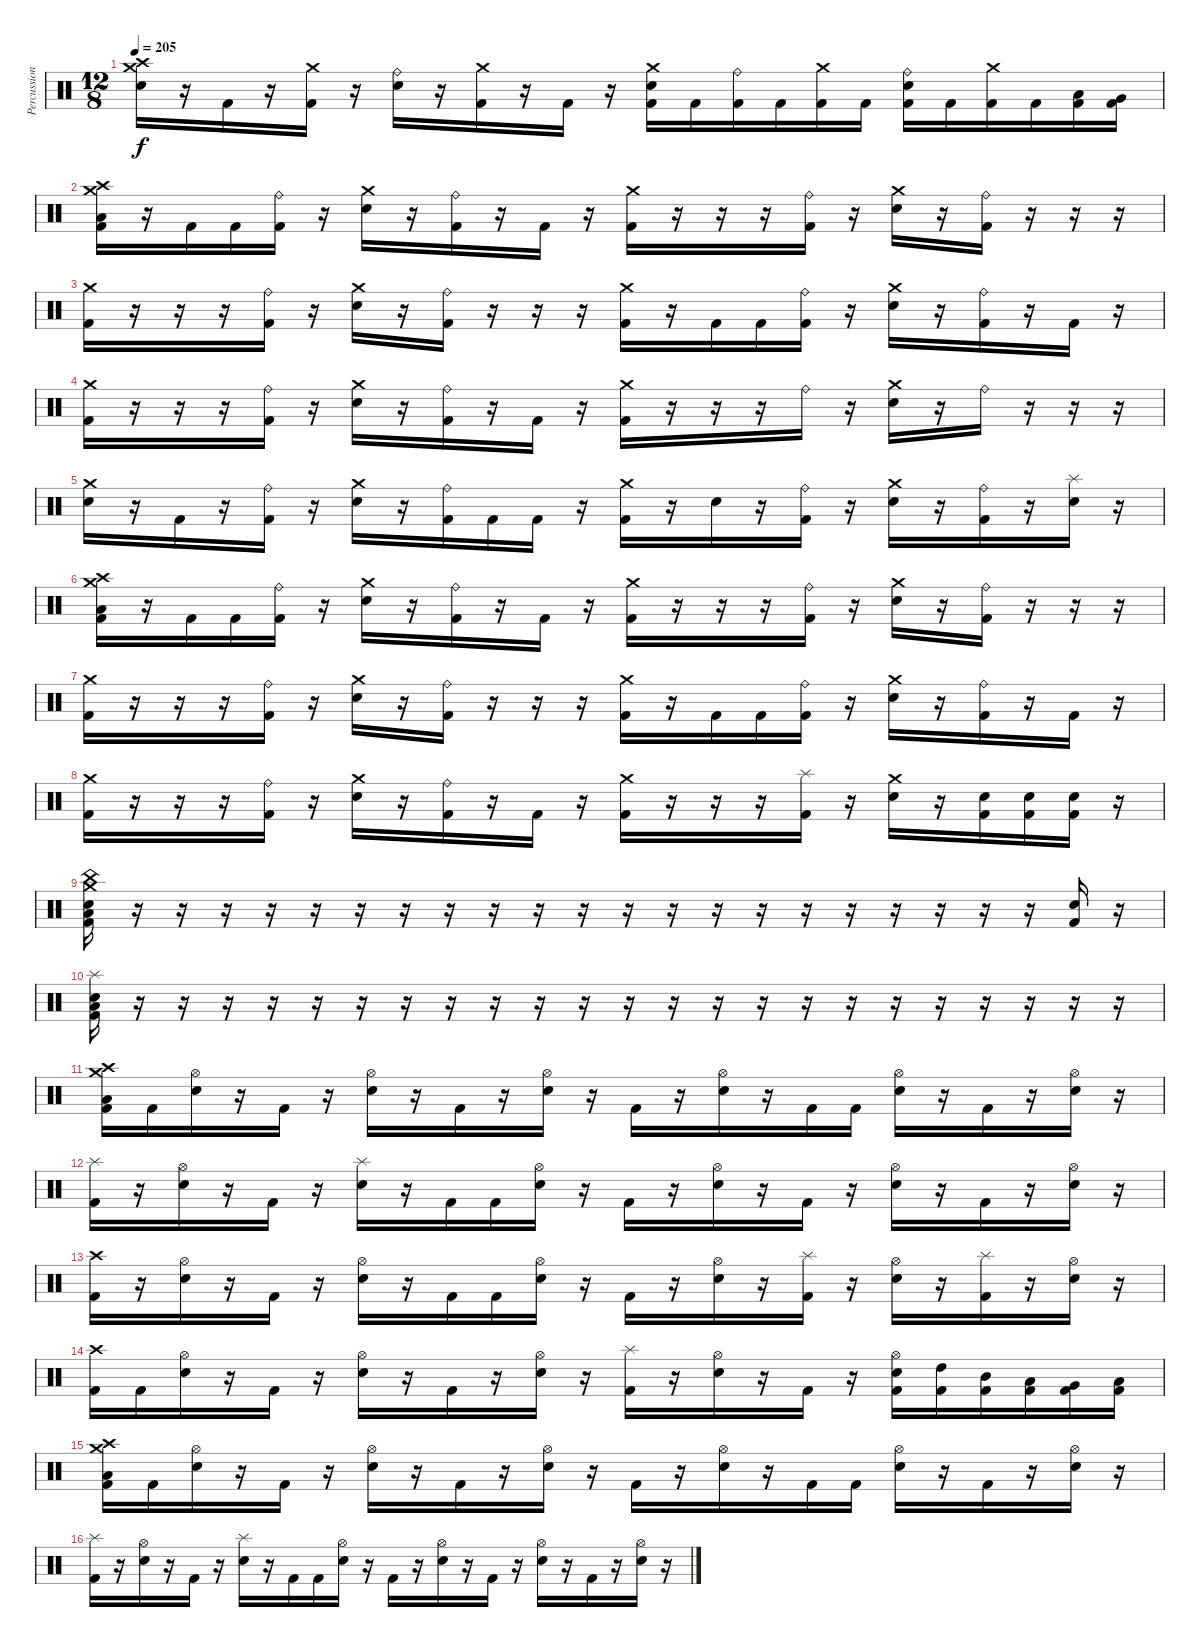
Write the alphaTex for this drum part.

\track ("Percussion" "Percussion") {instrument percussion}
\staff {score}
\articulation defaults
\ts (12 8)
\tempo 205
\clef neutral
\ks c
("Crash high (hit)" "Crash medium (hit)" "Electric Snare (hit)").16{dy f} r.16 "Kick (hit) 2".16 r.16 ("Crash medium (hit)" "Kick (hit) 2").16 r.16 ("Ride (bell)" "Electric Snare (hit)").16 r.16 ("Crash medium (hit)" "Kick (hit) 2").16 r.16 "Kick (hit) 2".16 r.16 ("Crash medium (hit)" "Electric Snare (hit)" "Kick (hit) 2").16 "Kick (hit) 2".16 ("Ride (bell)" "Kick (hit) 2").16 "Kick (hit) 2".16 ("Crash medium (hit)" "Kick (hit) 2").16 "Kick (hit) 2".16 ("Ride (bell)" "Electric Snare (hit)" "Kick (hit) 2").16 "Kick (hit) 2".16 ("Crash medium (hit)" "Kick (hit) 2").16 "Kick (hit) 2".16 ("Low Tom (hit)" "Kick (hit) 2").16 ("Very Low Tom (hit)" "Kick (hit) 2").16 |
("Crash high (hit)" "Crash medium (hit)" "Low Floor Tom (hit)" "Kick (hit) 2").16 r.16 "Kick (hit) 2".16 "Kick (hit) 2".16 ("Ride (bell)" "Kick (hit) 2").16 r.16 ("Crash medium (hit)" "Electric Snare (hit)").16 r.16 ("Ride (bell)" "Kick (hit) 2").16 r.16 "Kick (hit) 2".16 r.16 ("Crash medium (hit)" "Kick (hit) 2").16 r.16 r.16 r.16 ("Ride (bell)" "Kick (hit) 2").16 r.16 ("Crash medium (hit)" "Electric Snare (hit)").16 r.16 ("Ride (bell)" "Kick (hit) 2").16 r.16 r.16 r.16 |
("Crash medium (hit)" "Kick (hit) 2").16 r.16 r.16 r.16 ("Ride (bell)" "Kick (hit) 2").16 r.16 ("Crash medium (hit)" "Electric Snare (hit)").16 r.16 ("Ride (bell)" "Kick (hit) 2").16 r.16 r.16 r.16 ("Crash medium (hit)" "Kick (hit) 2").16 r.16 "Kick (hit) 2".16 "Kick (hit) 2".16 ("Ride (bell)" "Kick (hit) 2").16 r.16 ("Crash medium (hit)" "Electric Snare (hit)").16 r.16 ("Ride (bell)" "Kick (hit) 2").16 r.16 "Kick (hit) 2".16 r.16 |
("Crash medium (hit)" "Kick (hit) 2").16 r.16 r.16 r.16 ("Ride (bell)" "Kick (hit) 2").16 r.16 ("Crash medium (hit)" "Electric Snare (hit)").16 r.16 ("Ride (bell)" "Kick (hit) 2").16 r.16 "Kick (hit) 2".16 r.16 ("Crash medium (hit)" "Kick (hit) 2").16 r.16 r.16 r.16 "Ride (bell)".16 r.16 ("Crash medium (hit)" "Electric Snare (hit)").16 r.16 "Ride (bell)".16 r.16 r.16 r.16 |
("Crash medium (hit)" "Electric Snare (hit)").16 r.16 "Kick (hit) 2".16 r.16 ("Ride (bell)" "Kick (hit) 2").16 r.16 ("Crash medium (hit)" "Electric Snare (hit)").16 r.16 ("Ride (bell)" "Kick (hit) 2").16 "Kick (hit) 2".16 "Kick (hit) 2".16 r.16 ("Crash medium (hit)" "Kick (hit) 2").16 r.16 "Electric Snare (hit)".16 r.16 ("Ride (bell)" "Kick (hit) 2").16 r.16 ("Crash medium (hit)" "Electric Snare (hit)").16 r.16 ("Ride (bell)" "Kick (hit) 2").16 r.16 ("Splash (hit)" "Electric Snare (hit)").16 r.16 |
("Crash high (hit)" "Crash medium (hit)" "Low Floor Tom (hit)" "Kick (hit) 2").16 r.16 "Kick (hit) 2".16 "Kick (hit) 2".16 ("Ride (bell)" "Kick (hit) 2").16 r.16 ("Crash medium (hit)" "Electric Snare (hit)").16 r.16 ("Ride (bell)" "Kick (hit) 2").16 r.16 "Kick (hit) 2".16 r.16 ("Crash medium (hit)" "Kick (hit) 2").16 r.16 r.16 r.16 ("Ride (bell)" "Kick (hit) 2").16 r.16 ("Crash medium (hit)" "Electric Snare (hit)").16 r.16 ("Ride (bell)" "Kick (hit) 2").16 r.16 r.16 r.16 |
("Crash medium (hit)" "Kick (hit) 2").16 r.16 r.16 r.16 ("Ride (bell)" "Kick (hit) 2").16 r.16 ("Crash medium (hit)" "Electric Snare (hit)").16 r.16 ("Ride (bell)" "Kick (hit) 2").16 r.16 r.16 r.16 ("Crash medium (hit)" "Kick (hit) 2").16 r.16 "Kick (hit) 2".16 "Kick (hit) 2".16 ("Ride (bell)" "Kick (hit) 2").16 r.16 ("Crash medium (hit)" "Electric Snare (hit)").16 r.16 ("Ride (bell)" "Kick (hit) 2").16 r.16 "Kick (hit) 2".16 r.16 |
("Crash medium (hit)" "Kick (hit) 2").16 r.16 r.16 r.16 ("Ride (bell)" "Kick (hit) 2").16 r.16 ("Crash medium (hit)" "Electric Snare (hit)").16 r.16 ("Ride (bell)" "Kick (hit) 2").16 r.16 "Kick (hit) 2".16 r.16 ("Crash medium (hit)" "Kick (hit) 2").16 r.16 r.16 r.16 ("Splash (hit)" "Kick (hit) 2").16 r.16 ("Crash medium (hit)" "Electric Snare (hit)").16 r.16 ("Electric Snare (hit)" "Kick (hit) 2").16 ("Electric Snare (hit)" "Kick (hit) 2").16 ("Electric Snare (hit)" "Kick (hit) 2").16 r.16 |
("Crash medium (hit)" "China (hit)" "Electric Snare (hit)" "Low Floor Tom (hit)" "Kick (hit) 2").16 r.16 r.16 r.16 r.16 r.16 r.16 r.16 r.16 r.16 r.16 r.16 r.16 r.16 r.16 r.16 r.16 r.16 r.16 r.16 r.16 r.16 ("Electric Snare (hit)" "Kick (hit) 2").16 r.16 |
("Splash (hit)" "Electric Snare (hit)" "Low Floor Tom (hit)" "Kick (hit) 2").16 r.16 r.16 r.16 r.16 r.16 r.16 r.16 r.16 r.16 r.16 r.16 r.16 r.16 r.16 r.16 r.16 r.16 r.16 r.16 r.16 r.16 r.16 r.16 |
("Crash high (hit)" "Crash medium (hit)" "Low Floor Tom (hit)" "Kick (hit) 2").16 "Kick (hit) 2".16 ("Hi-Hat (open)" "Electric Snare (hit)").16 r.16 "Kick (hit) 2".16 r.16 ("Hi-Hat (open)" "Electric Snare (hit)").16 r.16 "Kick (hit) 2".16 r.16 ("Hi-Hat (open)" "Electric Snare (hit)").16 r.16 "Kick (hit) 2".16 r.16 ("Hi-Hat (open)" "Electric Snare (hit)").16 r.16 "Kick (hit) 2".16 "Kick (hit) 2".16 ("Hi-Hat (open)" "Electric Snare (hit)").16 r.16 "Kick (hit) 2".16 r.16 ("Hi-Hat (open)" "Electric Snare (hit)").16 r.16 |
("Splash (hit)" "Kick (hit) 2").16 r.16 ("Hi-Hat (open)" "Electric Snare (hit)").16 r.16 "Kick (hit) 2".16 r.16 ("Splash (hit)" "Electric Snare (hit)").16 r.16 "Kick (hit) 2".16 "Kick (hit) 2".16 ("Hi-Hat (open)" "Electric Snare (hit)").16 r.16 "Kick (hit) 2".16 r.16 ("Hi-Hat (open)" "Electric Snare (hit)").16 r.16 "Kick (hit) 2".16 r.16 ("Hi-Hat (open)" "Electric Snare (hit)").16 r.16 "Kick (hit) 2".16 r.16 ("Hi-Hat (open)" "Electric Snare (hit)").16 r.16 |
("Crash high (hit)" "Kick (hit) 2").16 r.16 ("Hi-Hat (open)" "Electric Snare (hit)").16 r.16 "Kick (hit) 2".16 r.16 ("Hi-Hat (open)" "Electric Snare (hit)").16 r.16 "Kick (hit) 2".16 "Kick (hit) 2".16 ("Hi-Hat (open)" "Electric Snare (hit)").16 r.16 "Kick (hit) 2".16 r.16 ("Hi-Hat (open)" "Electric Snare (hit)").16 r.16 ("Splash (hit)" "Kick (hit) 2").16 r.16 ("Hi-Hat (open)" "Electric Snare (hit)").16 r.16 ("Splash (hit)" "Kick (hit) 2").16 r.16 ("Hi-Hat (open)" "Electric Snare (hit)").16 r.16 |
("Crash high (hit)" "Kick (hit) 2").16 "Kick (hit) 2".16 ("Hi-Hat (open)" "Electric Snare (hit)").16 r.16 "Kick (hit) 2".16 r.16 ("Hi-Hat (open)" "Electric Snare (hit)").16 r.16 "Kick (hit) 2".16 r.16 ("Hi-Hat (open)" "Electric Snare (hit)").16 r.16 ("Splash (hit)" "Kick (hit) 2").16 r.16 ("Hi-Hat (open)" "Electric Snare (hit)").16 r.16 "Kick (hit) 2".16 r.16 ("Hi-Hat (open)" "Electric Snare (hit)" "Kick (hit) 2").16 ("High Tom (hit)" "Kick (hit) 2").16 ("Mid Tom (hit)" "Kick (hit) 2").16 ("Low Tom (hit)" "Kick (hit) 2").16 ("Very Low Tom (hit)" "Kick (hit) 2").16 ("Low Floor Tom (hit)" "Kick (hit) 2").16 |
("Crash high (hit)" "Crash medium (hit)" "Low Floor Tom (hit)" "Kick (hit) 2").16 "Kick (hit) 2".16 ("Hi-Hat (open)" "Electric Snare (hit)").16 r.16 "Kick (hit) 2".16 r.16 ("Hi-Hat (open)" "Electric Snare (hit)").16 r.16 "Kick (hit) 2".16 r.16 ("Hi-Hat (open)" "Electric Snare (hit)").16 r.16 "Kick (hit) 2".16 r.16 ("Hi-Hat (open)" "Electric Snare (hit)").16 r.16 "Kick (hit) 2".16 "Kick (hit) 2".16 ("Hi-Hat (open)" "Electric Snare (hit)").16 r.16 "Kick (hit) 2".16 r.16 ("Hi-Hat (open)" "Electric Snare (hit)").16 r.16 |
("Splash (hit)" "Kick (hit) 2").16 r.16 ("Hi-Hat (open)" "Electric Snare (hit)").16 r.16 "Kick (hit) 2".16 r.16 ("Splash (hit)" "Electric Snare (hit)").16 r.16 "Kick (hit) 2".16 "Kick (hit) 2".16 ("Hi-Hat (open)" "Electric Snare (hit)").16 r.16 "Kick (hit) 2".16 r.16 ("Hi-Hat (open)" "Electric Snare (hit)").16 r.16 "Kick (hit) 2".16 r.16 ("Hi-Hat (open)" "Electric Snare (hit)").16 r.16 "Kick (hit) 2".16 r.16 ("Hi-Hat (open)" "Electric Snare (hit)").16 r.16
